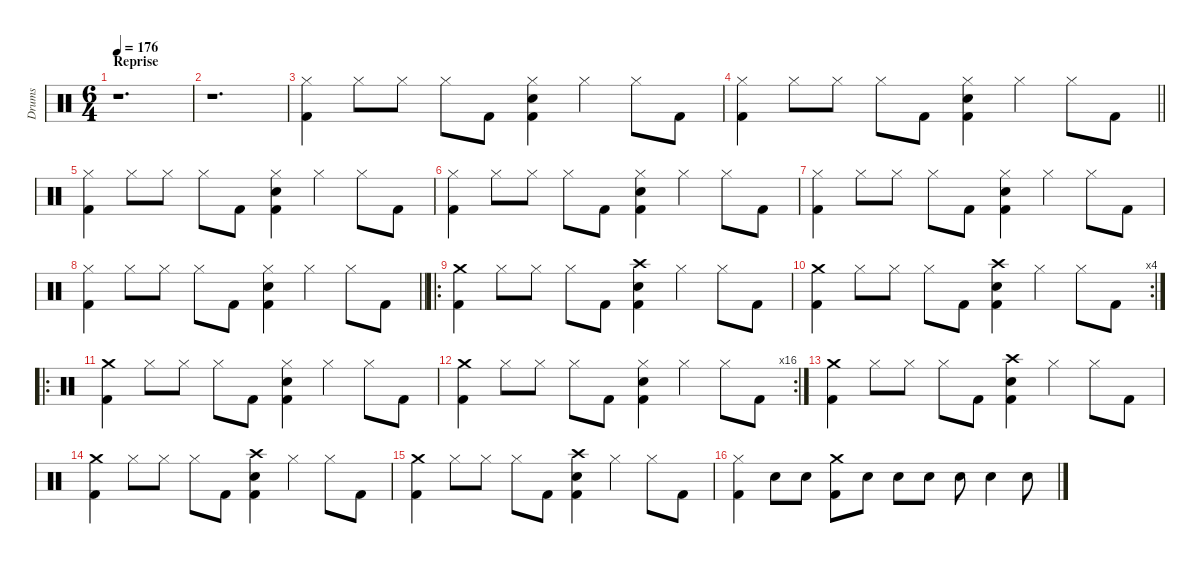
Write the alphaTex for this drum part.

\hideDynamics
\bracketExtendMode groupsimilarinstruments
\otherSystemsTrackNameOrientation horizontal
\track ("Drumkit" "Drums") {defaultSystemsLayout 4 instrument percussion}
\staff {score}
\articulation defaults
\ts (6 4)
\section ("" "Reprise")
\tempo 176
\clef neutral
\ks c
r.1{d dy f beam Down} |
r.1{d beam Down} |
("Hi-Hat (closed)" "Kick (hit) 2").4{beam Down} "Hi-Hat (closed)".8{beam Down} "Hi-Hat (closed)".8{beam Down} "Hi-Hat (closed)".8{beam Down} "Kick (hit) 2".8{beam Down} ("Hi-Hat (closed)" "Snare (hit) 2" "Kick (hit) 2").4{beam Down} "Hi-Hat (closed)".4{beam Down} "Hi-Hat (closed)".8{beam Down} "Kick (hit) 2".8{beam Down} |
\barLineRight lightlight
("Hi-Hat (closed)" "Kick (hit) 2").4{beam Down} "Hi-Hat (closed)".8{beam Down} "Hi-Hat (closed)".8{beam Down} "Hi-Hat (closed)".8{beam Down} "Kick (hit) 2".8{beam Down} ("Hi-Hat (closed)" "Snare (hit) 2" "Kick (hit) 2").4{beam Down} "Hi-Hat (closed)".4{beam Down} "Hi-Hat (closed)".8{beam Down} "Kick (hit) 2".8{beam Down} |
("Hi-Hat (closed)" "Kick (hit) 2").4{beam Down} "Hi-Hat (closed)".8{beam Down} "Hi-Hat (closed)".8{beam Down} "Hi-Hat (closed)".8{beam Down} "Kick (hit) 2".8{beam Down} ("Hi-Hat (closed)" "Snare (hit) 2" "Kick (hit) 2").4{beam Down} "Hi-Hat (closed)".4{beam Down} "Hi-Hat (closed)".8{beam Down} "Kick (hit) 2".8{beam Down} |
("Hi-Hat (closed)" "Kick (hit) 2").4{beam Down} "Hi-Hat (closed)".8{beam Down} "Hi-Hat (closed)".8{beam Down} "Hi-Hat (closed)".8{beam Down} "Kick (hit) 2".8{beam Down} ("Hi-Hat (closed)" "Snare (hit) 2" "Kick (hit) 2").4{beam Down} "Hi-Hat (closed)".4{beam Down} "Hi-Hat (closed)".8{beam Down} "Kick (hit) 2".8{beam Down} |
("Hi-Hat (closed)" "Kick (hit) 2").4{beam Down} "Hi-Hat (closed)".8{beam Down} "Hi-Hat (closed)".8{beam Down} "Hi-Hat (closed)".8{beam Down} "Kick (hit) 2".8{beam Down} ("Hi-Hat (closed)" "Snare (hit) 2" "Kick (hit) 2").4{beam Down} "Hi-Hat (closed)".4{beam Down} "Hi-Hat (closed)".8{beam Down} "Kick (hit) 2".8{beam Down} |
\barLineRight lightlight
("Hi-Hat (closed)" "Kick (hit) 2").4{beam Down} "Hi-Hat (closed)".8{beam Down} "Hi-Hat (closed)".8{beam Down} "Hi-Hat (closed)".8{beam Down} "Kick (hit) 2".8{beam Down} ("Hi-Hat (closed)" "Snare (hit) 2" "Kick (hit) 2").4{beam Down} "Hi-Hat (closed)".4{beam Down} "Hi-Hat (closed)".8{beam Down} "Kick (hit) 2".8{beam Down} |
\ro
("Crash medium (hit)" "Kick (hit) 2").4{dy ff beam Down} "Hi-Hat (closed)".8{dy f beam Down} "Hi-Hat (closed)".8{beam Down} "Hi-Hat (closed)".8{beam Down} "Kick (hit) 2".8{beam Down} ("Crash high (hit)" "Snare (hit) 2" "Kick (hit) 2").4{beam Down} "Hi-Hat (closed)".4{beam Down} "Hi-Hat (closed)".8{beam Down} "Kick (hit) 2".8{beam Down} |
\rc 4
("Crash medium (hit)" "Kick (hit) 2").4{dy ff beam Down} "Hi-Hat (closed)".8{dy f beam Down} "Hi-Hat (closed)".8{beam Down} "Hi-Hat (closed)".8{beam Down} "Kick (hit) 2".8{beam Down} ("Crash high (hit)" "Snare (hit) 2" "Kick (hit) 2").4{beam Down} "Hi-Hat (closed)".4{beam Down} "Hi-Hat (closed)".8{beam Down} "Kick (hit) 2".8{beam Down} |
\ro
("Crash medium (hit)" "Kick (hit) 2").4{dy ff beam Down} "Hi-Hat (closed)".8{dy f beam Down} "Hi-Hat (closed)".8{beam Down} "Hi-Hat (closed)".8{beam Down} "Kick (hit) 2".8{beam Down} ("Hi-Hat (closed)" "Snare (hit) 2" "Kick (hit) 2").4{beam Down} "Hi-Hat (closed)".4{beam Down} "Hi-Hat (closed)".8{beam Down} "Kick (hit) 2".8{beam Down} |
\rc 16
("Crash medium (hit)" "Kick (hit) 2").4{dy ff beam Down} "Hi-Hat (closed)".8{dy f beam Down} "Hi-Hat (closed)".8{beam Down} "Hi-Hat (closed)".8{beam Down} "Kick (hit) 2".8{beam Down} ("Hi-Hat (closed)" "Snare (hit) 2" "Kick (hit) 2").4{beam Down} "Hi-Hat (closed)".4{beam Down} "Hi-Hat (closed)".8{beam Down} "Kick (hit) 2".8{beam Down} |
("Crash medium (hit)" "Kick (hit) 2").4{dy ff beam Down} "Hi-Hat (closed)".8{dy f beam Down} "Hi-Hat (closed)".8{beam Down} "Hi-Hat (closed)".8{beam Down} "Kick (hit) 2".8{beam Down} ("Crash high (hit)" "Snare (hit) 2" "Kick (hit) 2").4{beam Down} "Hi-Hat (closed)".4{beam Down} "Hi-Hat (closed)".8{beam Down} "Kick (hit) 2".8{beam Down} |
("Crash medium (hit)" "Kick (hit) 2").4{dy ff beam Down} "Hi-Hat (closed)".8{dy f beam Down} "Hi-Hat (closed)".8{beam Down} "Hi-Hat (closed)".8{beam Down} "Kick (hit) 2".8{beam Down} ("Crash high (hit)" "Snare (hit) 2" "Kick (hit) 2").4{beam Down} "Hi-Hat (closed)".4{beam Down} "Hi-Hat (closed)".8{beam Down} "Kick (hit) 2".8{beam Down} |
("Crash medium (hit)" "Kick (hit) 2").4{dy ff beam Down} "Hi-Hat (closed)".8{dy f beam Down} "Hi-Hat (closed)".8{beam Down} "Hi-Hat (closed)".8{beam Down} "Kick (hit) 2".8{beam Down} ("Crash high (hit)" "Snare (hit) 2" "Kick (hit) 2").4{beam Down} "Hi-Hat (closed)".4{beam Down} "Hi-Hat (closed)".8{beam Down} "Kick (hit) 2".8{beam Down} |
("Hi-Hat (closed)" "Kick (hit) 2").4{beam Down} "Snare (hit) 2".8{beam Down} "Snare (hit) 2".8{beam Down} ("Crash medium (hit)" "Kick (hit) 2").8{beam Down} "Snare (hit) 2".8{beam Down} "Snare (hit) 2".8{beam Down} "Snare (hit) 2".8{beam Down} "Snare (hit) 2".8{beam Down} "Snare (hit) 2".4{beam Down} "Snare (hit) 2".8{beam Down}
